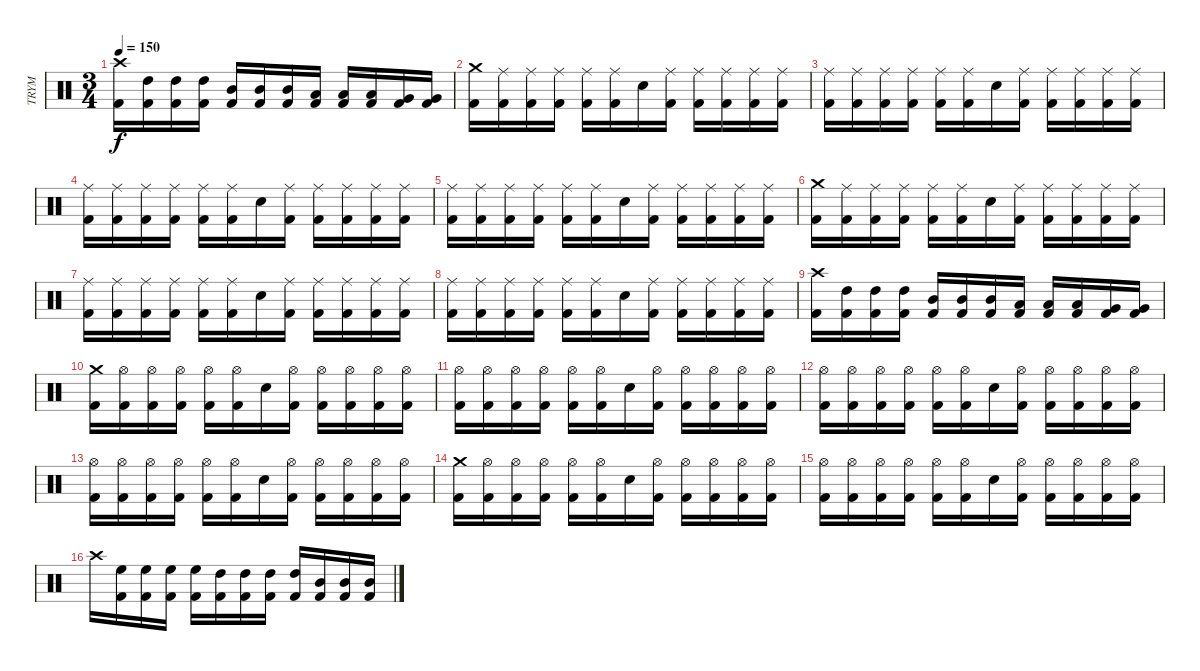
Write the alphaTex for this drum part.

\track ("TRYM" "TRYM") {instrument percussion}
\staff {score}
\articulation defaults
\ts (3 4)
\tempo 150
\clef neutral
\ks c
("Kick (hit) 2" "Crash high (hit)").16{dy f} ("Kick (hit) 2" "High Tom (hit)").16 ("Kick (hit) 2" "High Tom (hit)").16 ("Kick (hit) 2" "High Tom (hit)").16 ("Kick (hit) 2" "Mid Tom (hit)").16 ("Kick (hit) 2" "Mid Tom (hit)").16 ("Kick (hit) 2" "Mid Tom (hit)").16 ("Kick (hit) 2" "Low Tom (hit)").16 ("Kick (hit) 2" "Low Tom (hit)").16 ("Kick (hit) 2" "Low Tom (hit)").16 ("Kick (hit) 2" "Very Low Tom (hit)").16 ("Kick (hit) 2" "Very Low Tom (hit)").16 |
("Kick (hit) 2" "Crash medium (hit)").16 ("Kick (hit) 2" "Ride (middle)").16 ("Kick (hit) 2" "Ride (middle)").16 ("Kick (hit) 2" "Ride (middle)").16 ("Kick (hit) 2" "Ride (middle)").16 ("Kick (hit) 2" "Ride (middle)").16 "Electric Snare (hit)".16 ("Kick (hit) 2" "Ride (middle)").16 ("Kick (hit) 2" "Ride (middle)").16 ("Kick (hit) 2" "Ride (middle)").16 ("Kick (hit) 2" "Ride (middle)").16 ("Kick (hit) 2" "Ride (middle)").16 |
("Kick (hit) 2" "Ride (middle)").16 ("Kick (hit) 2" "Ride (middle)").16 ("Kick (hit) 2" "Ride (middle)").16 ("Kick (hit) 2" "Ride (middle)").16 ("Kick (hit) 2" "Ride (middle)").16 ("Kick (hit) 2" "Ride (middle)").16 "Electric Snare (hit)".16 ("Kick (hit) 2" "Ride (middle)").16 ("Kick (hit) 2" "Ride (middle)").16 ("Kick (hit) 2" "Ride (middle)").16 ("Kick (hit) 2" "Ride (middle)").16 ("Kick (hit) 2" "Ride (middle)").16 |
("Kick (hit) 2" "Ride (middle)").16 ("Kick (hit) 2" "Ride (middle)").16 ("Kick (hit) 2" "Ride (middle)").16 ("Kick (hit) 2" "Ride (middle)").16 ("Kick (hit) 2" "Ride (middle)").16 ("Kick (hit) 2" "Ride (middle)").16 "Electric Snare (hit)".16 ("Kick (hit) 2" "Ride (middle)").16 ("Kick (hit) 2" "Ride (middle)").16 ("Kick (hit) 2" "Ride (middle)").16 ("Kick (hit) 2" "Ride (middle)").16 ("Kick (hit) 2" "Ride (middle)").16 |
("Kick (hit) 2" "Ride (middle)").16 ("Kick (hit) 2" "Ride (middle)").16 ("Kick (hit) 2" "Ride (middle)").16 ("Kick (hit) 2" "Ride (middle)").16 ("Kick (hit) 2" "Ride (middle)").16 ("Kick (hit) 2" "Ride (middle)").16 "Electric Snare (hit)".16 ("Kick (hit) 2" "Ride (middle)").16 ("Kick (hit) 2" "Ride (middle)").16 ("Kick (hit) 2" "Ride (middle)").16 ("Kick (hit) 2" "Ride (middle)").16 ("Kick (hit) 2" "Ride (middle)").16 |
("Kick (hit) 2" "Crash medium (hit)").16 ("Kick (hit) 2" "Ride (middle)").16 ("Kick (hit) 2" "Ride (middle)").16 ("Kick (hit) 2" "Ride (middle)").16 ("Kick (hit) 2" "Ride (middle)").16 ("Kick (hit) 2" "Ride (middle)").16 "Electric Snare (hit)".16 ("Kick (hit) 2" "Ride (middle)").16 ("Kick (hit) 2" "Ride (middle)").16 ("Kick (hit) 2" "Ride (middle)").16 ("Kick (hit) 2" "Ride (middle)").16 ("Kick (hit) 2" "Ride (middle)").16 |
("Kick (hit) 2" "Ride (middle)").16 ("Kick (hit) 2" "Ride (middle)").16 ("Kick (hit) 2" "Ride (middle)").16 ("Kick (hit) 2" "Ride (middle)").16 ("Kick (hit) 2" "Ride (middle)").16 ("Kick (hit) 2" "Ride (middle)").16 "Electric Snare (hit)".16 ("Kick (hit) 2" "Ride (middle)").16 ("Kick (hit) 2" "Ride (middle)").16 ("Kick (hit) 2" "Ride (middle)").16 ("Kick (hit) 2" "Ride (middle)").16 ("Kick (hit) 2" "Ride (middle)").16 |
("Kick (hit) 2" "Ride (middle)").16 ("Kick (hit) 2" "Ride (middle)").16 ("Kick (hit) 2" "Ride (middle)").16 ("Kick (hit) 2" "Ride (middle)").16 ("Kick (hit) 2" "Ride (middle)").16 ("Kick (hit) 2" "Ride (middle)").16 "Electric Snare (hit)".16 ("Kick (hit) 2" "Ride (middle)").16 ("Kick (hit) 2" "Ride (middle)").16 ("Kick (hit) 2" "Ride (middle)").16 ("Kick (hit) 2" "Ride (middle)").16 ("Kick (hit) 2" "Ride (middle)").16 |
("Kick (hit) 2" "Crash high (hit)").16 ("Kick (hit) 2" "High Tom (hit)").16 ("Kick (hit) 2" "High Tom (hit)").16 ("Kick (hit) 2" "High Tom (hit)").16 ("Kick (hit) 2" "Mid Tom (hit)").16 ("Kick (hit) 2" "Mid Tom (hit)").16 ("Kick (hit) 2" "Mid Tom (hit)").16 ("Kick (hit) 2" "Low Tom (hit)").16 ("Kick (hit) 2" "Low Tom (hit)").16 ("Kick (hit) 2" "Low Tom (hit)").16 ("Kick (hit) 2" "Very Low Tom (hit)").16 ("Kick (hit) 2" "Very Low Tom (hit)").16 |
("Kick (hit) 2" "Crash medium (hit)").16 ("Kick (hit) 2" "Hi-Hat (open)").16 ("Kick (hit) 2" "Hi-Hat (open)").16 ("Kick (hit) 2" "Hi-Hat (open)").16 ("Kick (hit) 2" "Hi-Hat (open)").16 ("Kick (hit) 2" "Hi-Hat (open)").16 "Electric Snare (hit)".16 ("Kick (hit) 2" "Hi-Hat (open)").16 ("Kick (hit) 2" "Hi-Hat (open)").16 ("Kick (hit) 2" "Hi-Hat (open)").16 ("Kick (hit) 2" "Hi-Hat (open)").16 ("Kick (hit) 2" "Hi-Hat (open)").16 |
("Kick (hit) 2" "Hi-Hat (open)").16 ("Kick (hit) 2" "Hi-Hat (open)").16 ("Kick (hit) 2" "Hi-Hat (open)").16 ("Kick (hit) 2" "Hi-Hat (open)").16 ("Kick (hit) 2" "Hi-Hat (open)").16 ("Kick (hit) 2" "Hi-Hat (open)").16 "Electric Snare (hit)".16 ("Kick (hit) 2" "Hi-Hat (open)").16 ("Kick (hit) 2" "Hi-Hat (open)").16 ("Kick (hit) 2" "Hi-Hat (open)").16 ("Kick (hit) 2" "Hi-Hat (open)").16 ("Kick (hit) 2" "Hi-Hat (open)").16 |
("Kick (hit) 2" "Hi-Hat (open)").16 ("Kick (hit) 2" "Hi-Hat (open)").16 ("Kick (hit) 2" "Hi-Hat (open)").16 ("Kick (hit) 2" "Hi-Hat (open)").16 ("Kick (hit) 2" "Hi-Hat (open)").16 ("Kick (hit) 2" "Hi-Hat (open)").16 "Electric Snare (hit)".16 ("Kick (hit) 2" "Hi-Hat (open)").16 ("Kick (hit) 2" "Hi-Hat (open)").16 ("Kick (hit) 2" "Hi-Hat (open)").16 ("Kick (hit) 2" "Hi-Hat (open)").16 ("Kick (hit) 2" "Hi-Hat (open)").16 |
("Kick (hit) 2" "Hi-Hat (open)").16 ("Kick (hit) 2" "Hi-Hat (open)").16 ("Kick (hit) 2" "Hi-Hat (open)").16 ("Kick (hit) 2" "Hi-Hat (open)").16 ("Kick (hit) 2" "Hi-Hat (open)").16 ("Kick (hit) 2" "Hi-Hat (open)").16 "Electric Snare (hit)".16 ("Kick (hit) 2" "Hi-Hat (open)").16 ("Kick (hit) 2" "Hi-Hat (open)").16 ("Kick (hit) 2" "Hi-Hat (open)").16 ("Kick (hit) 2" "Hi-Hat (open)").16 ("Kick (hit) 2" "Hi-Hat (open)").16 |
("Kick (hit) 2" "Crash medium (hit)").16 ("Kick (hit) 2" "Hi-Hat (open)").16 ("Kick (hit) 2" "Hi-Hat (open)").16 ("Kick (hit) 2" "Hi-Hat (open)").16 ("Kick (hit) 2" "Hi-Hat (open)").16 ("Kick (hit) 2" "Hi-Hat (open)").16 "Electric Snare (hit)".16 ("Kick (hit) 2" "Hi-Hat (open)").16 ("Kick (hit) 2" "Hi-Hat (open)").16 ("Kick (hit) 2" "Hi-Hat (open)").16 ("Kick (hit) 2" "Hi-Hat (open)").16 ("Kick (hit) 2" "Hi-Hat (open)").16 |
("Kick (hit) 2" "Hi-Hat (open)").16 ("Kick (hit) 2" "Hi-Hat (open)").16 ("Kick (hit) 2" "Hi-Hat (open)").16 ("Kick (hit) 2" "Hi-Hat (open)").16 ("Kick (hit) 2" "Hi-Hat (open)").16 ("Kick (hit) 2" "Hi-Hat (open)").16 "Electric Snare (hit)".16 ("Kick (hit) 2" "Hi-Hat (open)").16 ("Kick (hit) 2" "Hi-Hat (open)").16 ("Kick (hit) 2" "Hi-Hat (open)").16 ("Kick (hit) 2" "Hi-Hat (open)").16 ("Kick (hit) 2" "Hi-Hat (open)").16 |
"Crash high (hit)".16 ("Kick (hit) 2" "High Floor Tom (hit)").16 ("Kick (hit) 2" "High Floor Tom (hit)").16 ("Kick (hit) 2" "High Floor Tom (hit)").16 ("Kick (hit) 2" "High Floor Tom (hit)").16 ("Kick (hit) 2" "High Tom (hit)").16 ("Kick (hit) 2" "High Tom (hit)").16 ("Kick (hit) 2" "High Tom (hit)").16 ("Kick (hit) 2" "High Tom (hit)").16 ("Kick (hit) 2" "Mid Tom (hit)").16 ("Kick (hit) 2" "Mid Tom (hit)").16 ("Kick (hit) 2" "Mid Tom (hit)").16
